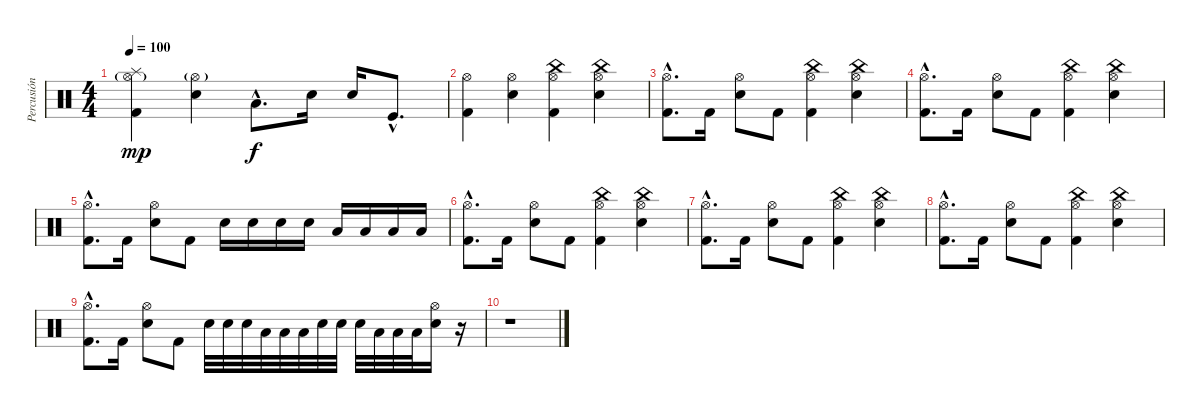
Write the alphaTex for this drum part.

\track ("Percusión" "Percusión") {instrument percussion}
\staff {score}
\articulation defaults
\ts (4 4)
\tempo 100
\clef neutral
\ks c
("Kick (hit) 2" "Splash (hit)" "Hi-Hat (open)"{g}).4{dy mp} ("Electric Snare (hit)" "Hi-Hat (open)"{g}).4 "Low Tom (hit)"{hac}.8{d dy f} "Electric Snare (hit)".16 "Electric Snare (hit)".16 "Kick (hit)"{hac}.8{d} |
("Kick (hit) 2" "Hi-Hat (open)").4 ("Electric Snare (hit)" "Hi-Hat (open)").4 ("Kick (hit) 2" "China (hit)" "Hi-Hat (open)").4 ("Electric Snare (hit)" "China (hit)" "Hi-Hat (open)").4 |
("Kick (hit) 2"{hac} "Hi-Hat (open)"{hac}).8{d} "Kick (hit) 2".16 ("Electric Snare (hit)" "Hi-Hat (open)").8 "Kick (hit) 2".8 ("Kick (hit) 2" "China (hit)" "Hi-Hat (open)").4 ("Electric Snare (hit)" "China (hit)" "Hi-Hat (open)").4 |
("Kick (hit) 2"{hac} "Hi-Hat (open)"{hac}).8{d} "Kick (hit) 2".16 ("Electric Snare (hit)" "Hi-Hat (open)").8 "Kick (hit) 2".8 ("Kick (hit) 2" "China (hit)" "Hi-Hat (open)").4 ("Electric Snare (hit)" "China (hit)" "Hi-Hat (open)").4 |
("Kick (hit) 2"{hac} "Hi-Hat (open)"{hac}).8{d} "Kick (hit) 2".16 ("Electric Snare (hit)" "Hi-Hat (open)").8 "Kick (hit) 2".8 "Electric Snare (hit)".16 "Electric Snare (hit)".16 "Electric Snare (hit)".16 "Electric Snare (hit)".16 "Low Tom (hit)".16 "Low Tom (hit)".16 "Low Tom (hit)".16 "Low Tom (hit)".16 |
("Kick (hit) 2"{hac} "Hi-Hat (open)"{hac}).8{d} "Kick (hit) 2".16 ("Electric Snare (hit)" "Hi-Hat (open)").8 "Kick (hit) 2".8 ("Kick (hit) 2" "China (hit)" "Hi-Hat (open)").4 ("Electric Snare (hit)" "China (hit)" "Hi-Hat (open)").4 |
("Kick (hit) 2"{hac} "Hi-Hat (open)"{hac}).8{d} "Kick (hit) 2".16 ("Electric Snare (hit)" "Hi-Hat (open)").8 "Kick (hit) 2".8 ("Kick (hit) 2" "China (hit)" "Hi-Hat (open)").4 ("Electric Snare (hit)" "China (hit)" "Hi-Hat (open)").4 |
("Kick (hit) 2"{hac} "Hi-Hat (open)"{hac}).8{d} "Kick (hit) 2".16 ("Electric Snare (hit)" "Hi-Hat (open)").8 "Kick (hit) 2".8 ("Kick (hit) 2" "China (hit)" "Hi-Hat (open)").4 ("Electric Snare (hit)" "China (hit)" "Hi-Hat (open)").4 |
("Kick (hit) 2"{hac} "Hi-Hat (open)"{hac}).8{d} "Kick (hit) 2".16 ("Electric Snare (hit)" "Hi-Hat (open)").8 "Kick (hit) 2".8 "Electric Snare (hit)".32 "Electric Snare (hit)".32 "Electric Snare (hit)".32 "Low Tom (hit)".32 "Low Tom (hit)".32 "Low Tom (hit)".32 "Electric Snare (hit)".32 "Electric Snare (hit)".32 "Electric Snare (hit)".32 "Low Tom (hit)".32 "Low Tom (hit)".32 "Low Tom (hit)".32 ("Electric Snare (hit)" "Hi-Hat (open)").16 r.16 |
r.1
